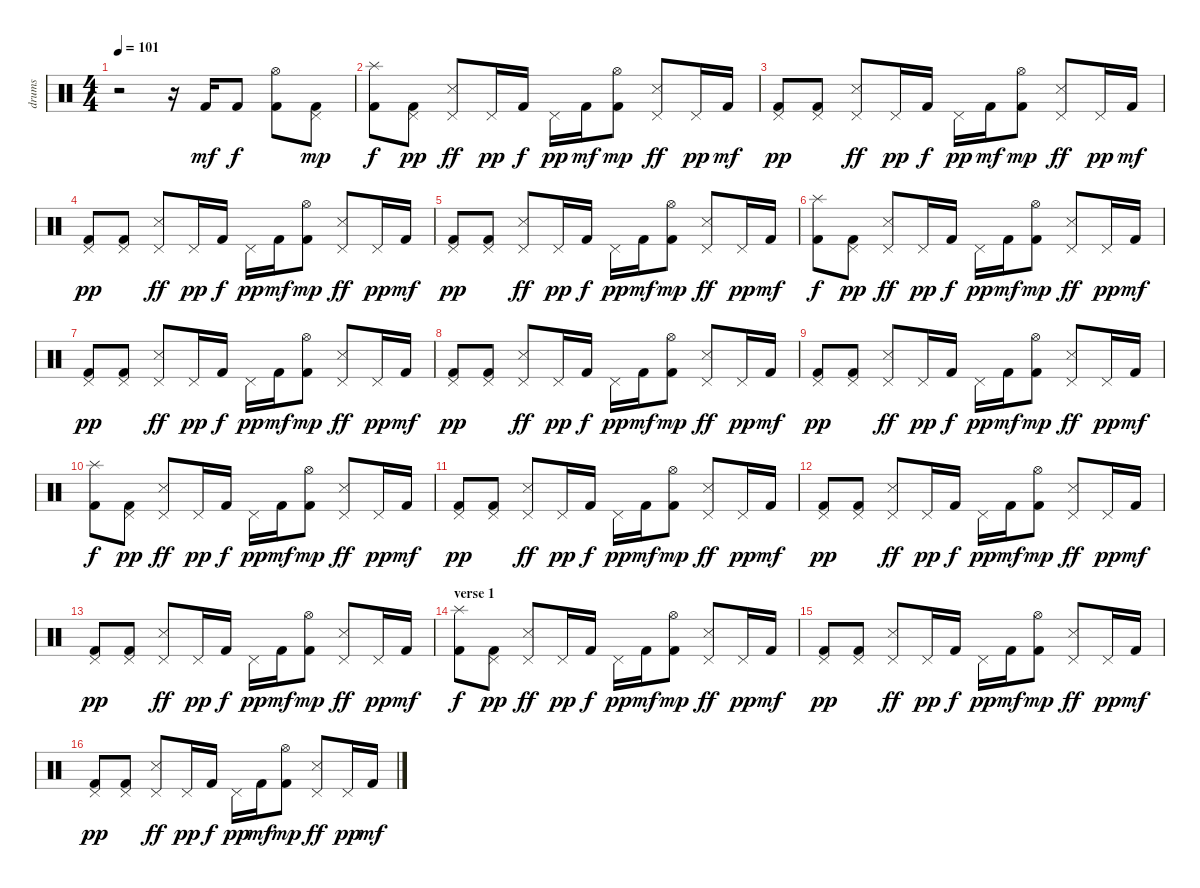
\track ("drums" "drums") {instrument percussion}
\staff {score}
\articulation defaults
\ts (4 4)
\tempo 101
\clef neutral
\ks c
r.2{dy mf} r.16 "Kick (hit) 2".16 "Kick (hit) 2".8{dy f} ("Hi-Hat (open)" "Kick (hit) 2").8 ("Pedal Hi-Hat (hit)" "Kick (hit) 2").8{dy mp} |
("Splash (hit)" "Kick (hit) 2").8{dy f} ("Pedal Hi-Hat (hit)" "Kick (hit) 2").8{dy pp} ("Pedal Hi-Hat (hit)" "Snare (side stick) 3").8{dy ff} "Pedal Hi-Hat (hit)".16{dy pp} "Kick (hit) 2".16{dy f} "Pedal Hi-Hat (hit)".16{dy pp} "Kick (hit) 2".16{dy mf} ("Hi-Hat (open)" "Kick (hit) 2").8{dy mp} ("Pedal Hi-Hat (hit)" "Snare (side stick) 3").8{dy ff} "Pedal Hi-Hat (hit)".16{dy pp} "Kick (hit) 2".16{dy mf} |
("Pedal Hi-Hat (hit)" "Kick (hit) 2").8{dy pp} ("Pedal Hi-Hat (hit)" "Kick (hit) 2").8 ("Pedal Hi-Hat (hit)" "Snare (side stick) 3").8{dy ff} "Pedal Hi-Hat (hit)".16{dy pp} "Kick (hit) 2".16{dy f} "Pedal Hi-Hat (hit)".16{dy pp} "Kick (hit) 2".16{dy mf} ("Hi-Hat (open)" "Kick (hit) 2").8{dy mp} ("Pedal Hi-Hat (hit)" "Snare (side stick) 3").8{dy ff} "Pedal Hi-Hat (hit)".16{dy pp} "Kick (hit) 2".16{dy mf} |
("Pedal Hi-Hat (hit)" "Kick (hit) 2").8{dy pp} ("Pedal Hi-Hat (hit)" "Kick (hit) 2").8 ("Pedal Hi-Hat (hit)" "Snare (side stick) 3").8{dy ff} "Pedal Hi-Hat (hit)".16{dy pp} "Kick (hit) 2".16{dy f} "Pedal Hi-Hat (hit)".16{dy pp} "Kick (hit) 2".16{dy mf} ("Hi-Hat (open)" "Kick (hit) 2").8{dy mp} ("Pedal Hi-Hat (hit)" "Snare (side stick) 3").8{dy ff} "Pedal Hi-Hat (hit)".16{dy pp} "Kick (hit) 2".16{dy mf} |
("Pedal Hi-Hat (hit)" "Kick (hit) 2").8{dy pp} ("Pedal Hi-Hat (hit)" "Kick (hit) 2").8 ("Pedal Hi-Hat (hit)" "Snare (side stick) 3").8{dy ff} "Pedal Hi-Hat (hit)".16{dy pp} "Kick (hit) 2".16{dy f} "Pedal Hi-Hat (hit)".16{dy pp} "Kick (hit) 2".16{dy mf} ("Hi-Hat (open)" "Kick (hit) 2").8{dy mp} ("Pedal Hi-Hat (hit)" "Snare (side stick) 3").8{dy ff} "Pedal Hi-Hat (hit)".16{dy pp} "Kick (hit) 2".16{dy mf} |
("Splash (hit)" "Kick (hit) 2").8{dy f} ("Pedal Hi-Hat (hit)" "Kick (hit) 2").8{dy pp} ("Pedal Hi-Hat (hit)" "Snare (side stick) 3").8{dy ff} "Pedal Hi-Hat (hit)".16{dy pp} "Kick (hit) 2".16{dy f} "Pedal Hi-Hat (hit)".16{dy pp} "Kick (hit) 2".16{dy mf} ("Hi-Hat (open)" "Kick (hit) 2").8{dy mp} ("Pedal Hi-Hat (hit)" "Snare (side stick) 3").8{dy ff} "Pedal Hi-Hat (hit)".16{dy pp} "Kick (hit) 2".16{dy mf} |
("Pedal Hi-Hat (hit)" "Kick (hit) 2").8{dy pp} ("Pedal Hi-Hat (hit)" "Kick (hit) 2").8 ("Pedal Hi-Hat (hit)" "Snare (side stick) 3").8{dy ff} "Pedal Hi-Hat (hit)".16{dy pp} "Kick (hit) 2".16{dy f} "Pedal Hi-Hat (hit)".16{dy pp} "Kick (hit) 2".16{dy mf} ("Hi-Hat (open)" "Kick (hit) 2").8{dy mp} ("Pedal Hi-Hat (hit)" "Snare (side stick) 3").8{dy ff} "Pedal Hi-Hat (hit)".16{dy pp} "Kick (hit) 2".16{dy mf} |
("Pedal Hi-Hat (hit)" "Kick (hit) 2").8{dy pp} ("Pedal Hi-Hat (hit)" "Kick (hit) 2").8 ("Pedal Hi-Hat (hit)" "Snare (side stick) 3").8{dy ff} "Pedal Hi-Hat (hit)".16{dy pp} "Kick (hit) 2".16{dy f} "Pedal Hi-Hat (hit)".16{dy pp} "Kick (hit) 2".16{dy mf} ("Hi-Hat (open)" "Kick (hit) 2").8{dy mp} ("Pedal Hi-Hat (hit)" "Snare (side stick) 3").8{dy ff} "Pedal Hi-Hat (hit)".16{dy pp} "Kick (hit) 2".16{dy mf} |
("Pedal Hi-Hat (hit)" "Kick (hit) 2").8{dy pp} ("Pedal Hi-Hat (hit)" "Kick (hit) 2").8 ("Pedal Hi-Hat (hit)" "Snare (side stick) 3").8{dy ff} "Pedal Hi-Hat (hit)".16{dy pp} "Kick (hit) 2".16{dy f} "Pedal Hi-Hat (hit)".16{dy pp} "Kick (hit) 2".16{dy mf} ("Hi-Hat (open)" "Kick (hit) 2").8{dy mp} ("Pedal Hi-Hat (hit)" "Snare (side stick) 3").8{dy ff} "Pedal Hi-Hat (hit)".16{dy pp} "Kick (hit) 2".16{dy mf} |
("Splash (hit)" "Kick (hit) 2").8{dy f} ("Pedal Hi-Hat (hit)" "Kick (hit) 2").8{dy pp} ("Pedal Hi-Hat (hit)" "Snare (side stick) 3").8{dy ff} "Pedal Hi-Hat (hit)".16{dy pp} "Kick (hit) 2".16{dy f} "Pedal Hi-Hat (hit)".16{dy pp} "Kick (hit) 2".16{dy mf} ("Hi-Hat (open)" "Kick (hit) 2").8{dy mp} ("Pedal Hi-Hat (hit)" "Snare (side stick) 3").8{dy ff} "Pedal Hi-Hat (hit)".16{dy pp} "Kick (hit) 2".16{dy mf} |
("Pedal Hi-Hat (hit)" "Kick (hit) 2").8{dy pp} ("Pedal Hi-Hat (hit)" "Kick (hit) 2").8 ("Pedal Hi-Hat (hit)" "Snare (side stick) 3").8{dy ff} "Pedal Hi-Hat (hit)".16{dy pp} "Kick (hit) 2".16{dy f} "Pedal Hi-Hat (hit)".16{dy pp} "Kick (hit) 2".16{dy mf} ("Hi-Hat (open)" "Kick (hit) 2").8{dy mp} ("Pedal Hi-Hat (hit)" "Snare (side stick) 3").8{dy ff} "Pedal Hi-Hat (hit)".16{dy pp} "Kick (hit) 2".16{dy mf} |
("Pedal Hi-Hat (hit)" "Kick (hit) 2").8{dy pp} ("Pedal Hi-Hat (hit)" "Kick (hit) 2").8 ("Pedal Hi-Hat (hit)" "Snare (side stick) 3").8{dy ff} "Pedal Hi-Hat (hit)".16{dy pp} "Kick (hit) 2".16{dy f} "Pedal Hi-Hat (hit)".16{dy pp} "Kick (hit) 2".16{dy mf} ("Hi-Hat (open)" "Kick (hit) 2").8{dy mp} ("Pedal Hi-Hat (hit)" "Snare (side stick) 3").8{dy ff} "Pedal Hi-Hat (hit)".16{dy pp} "Kick (hit) 2".16{dy mf} |
("Pedal Hi-Hat (hit)" "Kick (hit) 2").8{dy pp} ("Pedal Hi-Hat (hit)" "Kick (hit) 2").8 ("Pedal Hi-Hat (hit)" "Snare (side stick) 3").8{dy ff} "Pedal Hi-Hat (hit)".16{dy pp} "Kick (hit) 2".16{dy f} "Pedal Hi-Hat (hit)".16{dy pp} "Kick (hit) 2".16{dy mf} ("Hi-Hat (open)" "Kick (hit) 2").8{dy mp} ("Pedal Hi-Hat (hit)" "Snare (side stick) 3").8{dy ff} "Pedal Hi-Hat (hit)".16{dy pp} "Kick (hit) 2".16{dy mf} |
\section ("" "verse 1")
("Splash (hit)" "Kick (hit) 2").8{dy f} ("Pedal Hi-Hat (hit)" "Kick (hit) 2").8{dy pp} ("Pedal Hi-Hat (hit)" "Snare (side stick) 3").8{dy ff} "Pedal Hi-Hat (hit)".16{dy pp} "Kick (hit) 2".16{dy f} "Pedal Hi-Hat (hit)".16{dy pp} "Kick (hit) 2".16{dy mf} ("Hi-Hat (open)" "Kick (hit) 2").8{dy mp} ("Pedal Hi-Hat (hit)" "Snare (side stick) 3").8{dy ff} "Pedal Hi-Hat (hit)".16{dy pp} "Kick (hit) 2".16{dy mf} |
("Pedal Hi-Hat (hit)" "Kick (hit) 2").8{dy pp} ("Pedal Hi-Hat (hit)" "Kick (hit) 2").8 ("Pedal Hi-Hat (hit)" "Snare (side stick) 3").8{dy ff} "Pedal Hi-Hat (hit)".16{dy pp} "Kick (hit) 2".16{dy f} "Pedal Hi-Hat (hit)".16{dy pp} "Kick (hit) 2".16{dy mf} ("Hi-Hat (open)" "Kick (hit) 2").8{dy mp} ("Pedal Hi-Hat (hit)" "Snare (side stick) 3").8{dy ff} "Pedal Hi-Hat (hit)".16{dy pp} "Kick (hit) 2".16{dy mf} |
("Pedal Hi-Hat (hit)" "Kick (hit) 2").8{dy pp} ("Pedal Hi-Hat (hit)" "Kick (hit) 2").8 ("Pedal Hi-Hat (hit)" "Snare (side stick) 3").8{dy ff} "Pedal Hi-Hat (hit)".16{dy pp} "Kick (hit) 2".16{dy f} "Pedal Hi-Hat (hit)".16{dy pp} "Kick (hit) 2".16{dy mf} ("Hi-Hat (open)" "Kick (hit) 2").8{dy mp} ("Pedal Hi-Hat (hit)" "Snare (side stick) 3").8{dy ff} "Pedal Hi-Hat (hit)".16{dy pp} "Kick (hit) 2".16{dy mf}
